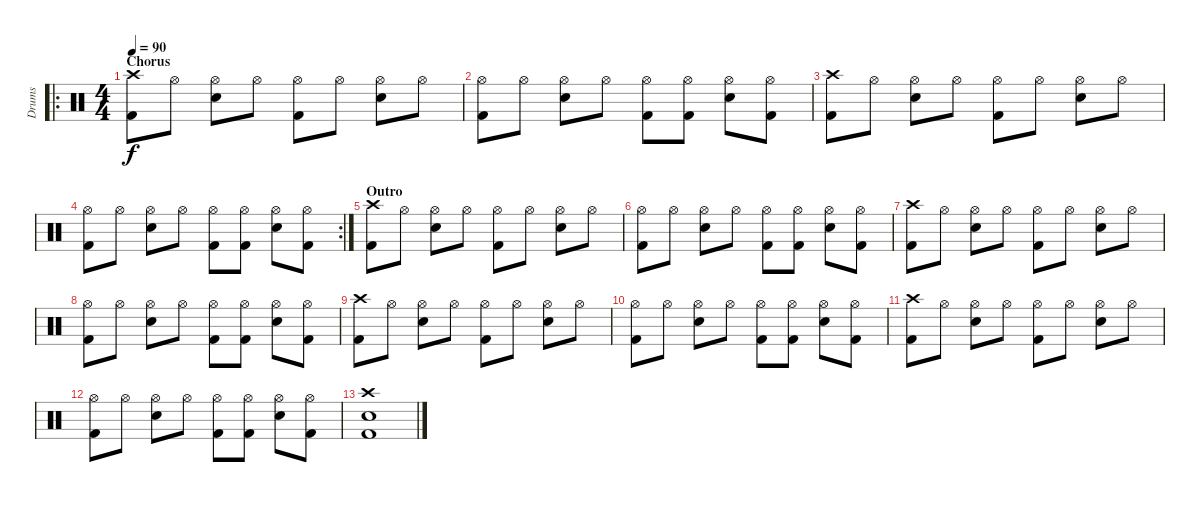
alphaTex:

\track ("Drums" "Drums") {instrument percussion}
\staff {score}
\articulation defaults
\ro
\ts (4 4)
\section ("" "Chorus")
\tempo 90
\clef neutral
\ks c
("Crash high (hit)" "Kick (hit) 2").8{dy f} "Hi-Hat (open)".8 ("Hi-Hat (open)" "Electric Snare (hit)").8 "Hi-Hat (open)".8 ("Hi-Hat (open)" "Kick (hit) 2").8 "Hi-Hat (open)".8 ("Hi-Hat (open)" "Electric Snare (hit)").8 "Hi-Hat (open)".8 |
("Hi-Hat (open)" "Kick (hit) 2").8 "Hi-Hat (open)".8 ("Hi-Hat (open)" "Electric Snare (hit)").8 "Hi-Hat (open)".8 ("Hi-Hat (open)" "Kick (hit) 2").8 ("Hi-Hat (open)" "Kick (hit) 2").8 ("Hi-Hat (open)" "Electric Snare (hit)").8 ("Hi-Hat (open)" "Kick (hit) 2").8 |
("Crash high (hit)" "Kick (hit) 2").8 "Hi-Hat (open)".8 ("Hi-Hat (open)" "Electric Snare (hit)").8 "Hi-Hat (open)".8 ("Hi-Hat (open)" "Kick (hit) 2").8 "Hi-Hat (open)".8 ("Hi-Hat (open)" "Electric Snare (hit)").8 "Hi-Hat (open)".8 |
\rc 2
("Hi-Hat (open)" "Kick (hit) 2").8 "Hi-Hat (open)".8 ("Hi-Hat (open)" "Electric Snare (hit)").8 "Hi-Hat (open)".8 ("Hi-Hat (open)" "Kick (hit) 2").8 ("Hi-Hat (open)" "Kick (hit) 2").8 ("Hi-Hat (open)" "Electric Snare (hit)").8 ("Hi-Hat (open)" "Kick (hit) 2").8 |
\section ("" "Outro")
("Crash high (hit)" "Kick (hit) 2").8 "Hi-Hat (open)".8 ("Hi-Hat (open)" "Electric Snare (hit)").8 "Hi-Hat (open)".8 ("Hi-Hat (open)" "Kick (hit) 2").8 "Hi-Hat (open)".8 ("Hi-Hat (open)" "Electric Snare (hit)").8 "Hi-Hat (open)".8 |
("Hi-Hat (open)" "Kick (hit) 2").8 "Hi-Hat (open)".8 ("Hi-Hat (open)" "Electric Snare (hit)").8 "Hi-Hat (open)".8 ("Hi-Hat (open)" "Kick (hit) 2").8 ("Hi-Hat (open)" "Kick (hit) 2").8 ("Hi-Hat (open)" "Electric Snare (hit)").8 ("Hi-Hat (open)" "Kick (hit) 2").8 |
("Crash high (hit)" "Kick (hit) 2").8 "Hi-Hat (open)".8 ("Hi-Hat (open)" "Electric Snare (hit)").8 "Hi-Hat (open)".8 ("Hi-Hat (open)" "Kick (hit) 2").8 "Hi-Hat (open)".8 ("Hi-Hat (open)" "Electric Snare (hit)").8 "Hi-Hat (open)".8 |
("Hi-Hat (open)" "Kick (hit) 2").8 "Hi-Hat (open)".8 ("Hi-Hat (open)" "Electric Snare (hit)").8 "Hi-Hat (open)".8 ("Hi-Hat (open)" "Kick (hit) 2").8 ("Hi-Hat (open)" "Kick (hit) 2").8 ("Hi-Hat (open)" "Electric Snare (hit)").8 ("Hi-Hat (open)" "Kick (hit) 2").8 |
("Crash high (hit)" "Kick (hit) 2").8 "Hi-Hat (open)".8 ("Hi-Hat (open)" "Electric Snare (hit)").8 "Hi-Hat (open)".8 ("Hi-Hat (open)" "Kick (hit) 2").8 "Hi-Hat (open)".8 ("Hi-Hat (open)" "Electric Snare (hit)").8 "Hi-Hat (open)".8 |
("Hi-Hat (open)" "Kick (hit) 2").8 "Hi-Hat (open)".8 ("Hi-Hat (open)" "Electric Snare (hit)").8 "Hi-Hat (open)".8 ("Hi-Hat (open)" "Kick (hit) 2").8 ("Hi-Hat (open)" "Kick (hit) 2").8 ("Hi-Hat (open)" "Electric Snare (hit)").8 ("Hi-Hat (open)" "Kick (hit) 2").8 |
("Crash high (hit)" "Kick (hit) 2").8 "Hi-Hat (open)".8 ("Hi-Hat (open)" "Electric Snare (hit)").8 "Hi-Hat (open)".8 ("Hi-Hat (open)" "Kick (hit) 2").8 "Hi-Hat (open)".8 ("Hi-Hat (open)" "Electric Snare (hit)").8 "Hi-Hat (open)".8 |
("Hi-Hat (open)" "Kick (hit) 2").8 "Hi-Hat (open)".8 ("Hi-Hat (open)" "Electric Snare (hit)").8 "Hi-Hat (open)".8 ("Hi-Hat (open)" "Kick (hit) 2").8 ("Hi-Hat (open)" "Kick (hit) 2").8 ("Hi-Hat (open)" "Electric Snare (hit)").8 ("Hi-Hat (open)" "Kick (hit) 2").8 |
("Crash high (hit)" "Kick (hit) 2" "Electric Snare (hit)").1
